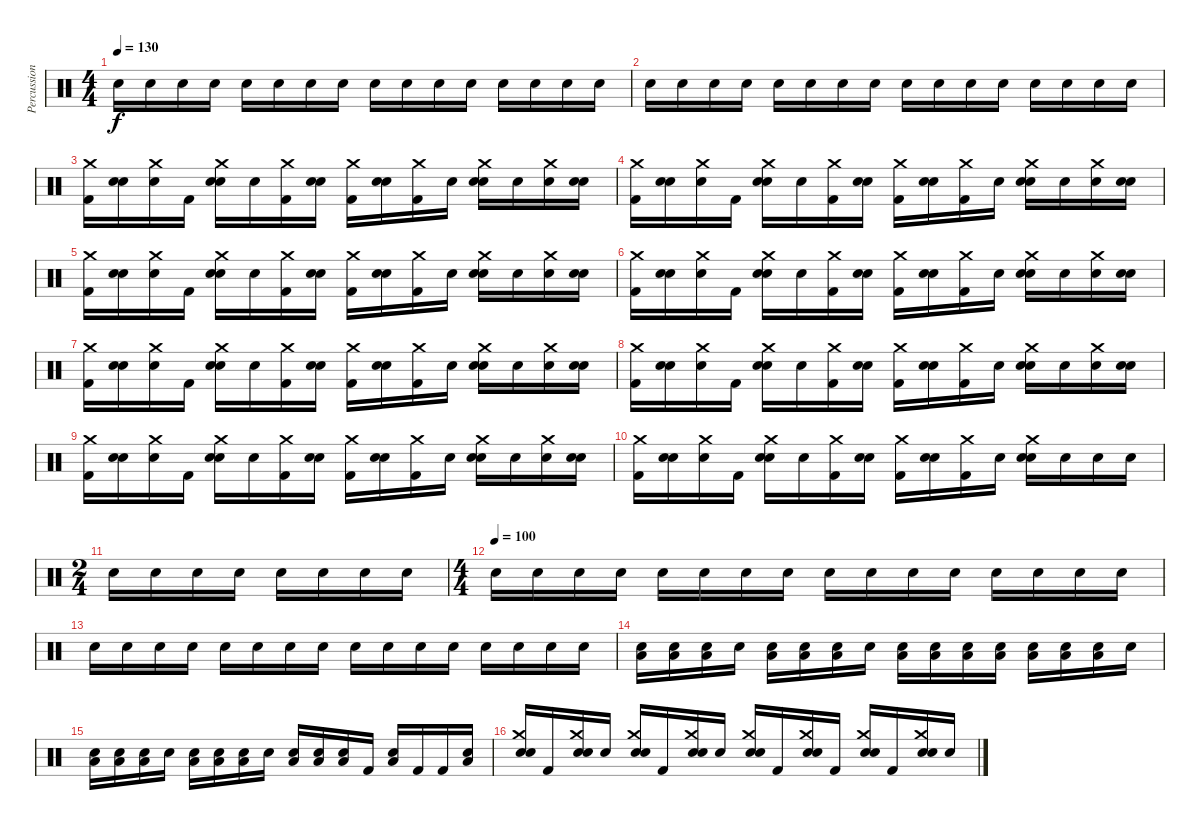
\track ("Percussion" "Percussion") {instrument percussion}
\staff {score}
\articulation defaults
\ts (4 4)
\tempo 130
\clef neutral
\ks c "Snare (hit)".16{dy f} "Snare (hit)".16 "Snare (hit)".16 "Snare (hit)".16 "Snare (hit)".16 "Snare (hit)".16 "Snare (hit)".16 "Snare (hit)".16 "Snare (hit)".16 "Snare (hit)".16 "Snare (hit)".16 "Snare (hit)".16 "Snare (hit)".16 "Snare (hit)".16 "Snare (hit)".16 "Snare (hit)".16
|
"Snare (hit)".16 "Snare (hit)".16 "Snare (hit)".16 "Snare (hit)".16 "Snare (hit)".16 "Snare (hit)".16 "Snare (hit)".16 "Snare (hit)".16 "Snare (hit)".16 "Snare (hit)".16 "Snare (hit)".16 "Snare (hit)".16 "Snare (hit)".16 "Snare (hit)".16 "Snare (hit)".16 "Snare (hit)".16 |
("Crash medium (hit)" "Kick (hit) 2").16 ("Electric Snare (hit)" "Snare (hit)").16 ("Crash medium (hit)" "Snare (hit)").16 "Kick (hit) 2".16 ("Electric Snare (hit)" "Crash medium (hit)" "Snare (hit)").16 "Snare (hit)".16 ("Crash medium (hit)" "Kick (hit) 2").16 ("Electric Snare (hit)" "Snare (hit)").16 ("Crash medium (hit)" "Kick (hit) 2").16 ("Electric Snare (hit)" "Snare (hit)").16 ("Crash medium (hit)" "Kick (hit) 2").16 "Snare (hit)".16 ("Electric Snare (hit)" "Crash medium (hit)" "Snare (hit)").16 "Snare (hit)".16 ("Crash medium (hit)" "Snare (hit)").16 ("Electric Snare (hit)" "Snare (hit)").16 |
("Crash medium (hit)" "Kick (hit) 2").16 ("Electric Snare (hit)" "Snare (hit)").16 ("Crash medium (hit)" "Snare (hit)").16 "Kick (hit) 2".16 ("Electric Snare (hit)" "Crash medium (hit)" "Snare (hit)").16 "Snare (hit)".16 ("Crash medium (hit)" "Kick (hit) 2").16 ("Electric Snare (hit)" "Snare (hit)").16 ("Crash medium (hit)" "Kick (hit) 2").16 ("Electric Snare (hit)" "Snare (hit)").16 ("Crash medium (hit)" "Kick (hit) 2").16 "Snare (hit)".16 ("Electric Snare (hit)" "Crash medium (hit)" "Snare (hit)").16 "Snare (hit)".16 ("Crash medium (hit)" "Snare (hit)").16 ("Electric Snare (hit)" "Snare (hit)").16 |
("Crash medium (hit)" "Kick (hit) 2").16 ("Electric Snare (hit)" "Snare (hit)").16 ("Crash medium (hit)" "Snare (hit)").16 "Kick (hit) 2".16 ("Electric Snare (hit)" "Crash medium (hit)" "Snare (hit)").16 "Snare (hit)".16 ("Crash medium (hit)" "Kick (hit) 2").16 ("Electric Snare (hit)" "Snare (hit)").16 ("Crash medium (hit)" "Kick (hit) 2").16 ("Electric Snare (hit)" "Snare (hit)").16 ("Crash medium (hit)" "Kick (hit) 2").16 "Snare (hit)".16 ("Electric Snare (hit)" "Crash medium (hit)" "Snare (hit)").16 "Snare (hit)".16 ("Crash medium (hit)" "Snare (hit)").16 ("Electric Snare (hit)" "Snare (hit)").16 |
("Crash medium (hit)" "Kick (hit) 2").16 ("Electric Snare (hit)" "Snare (hit)").16 ("Crash medium (hit)" "Snare (hit)").16 "Kick (hit) 2".16 ("Electric Snare (hit)" "Crash medium (hit)" "Snare (hit)").16 "Snare (hit)".16 ("Crash medium (hit)" "Kick (hit) 2").16 ("Electric Snare (hit)" "Snare (hit)").16 ("Crash medium (hit)" "Kick (hit) 2").16 ("Electric Snare (hit)" "Snare (hit)").16 ("Crash medium (hit)" "Kick (hit) 2").16 "Snare (hit)".16 ("Electric Snare (hit)" "Crash medium (hit)" "Snare (hit)").16 "Snare (hit)".16 ("Crash medium (hit)" "Snare (hit)").16 ("Electric Snare (hit)" "Snare (hit)").16 |
("Crash medium (hit)" "Kick (hit) 2").16 ("Electric Snare (hit)" "Snare (hit)").16 ("Crash medium (hit)" "Snare (hit)").16 "Kick (hit) 2".16 ("Electric Snare (hit)" "Crash medium (hit)" "Snare (hit)").16 "Snare (hit)".16 ("Crash medium (hit)" "Kick (hit) 2").16 ("Electric Snare (hit)" "Snare (hit)").16 ("Crash medium (hit)" "Kick (hit) 2").16 ("Electric Snare (hit)" "Snare (hit)").16 ("Crash medium (hit)" "Kick (hit) 2").16 "Snare (hit)".16 ("Electric Snare (hit)" "Crash medium (hit)" "Snare (hit)").16 "Snare (hit)".16 ("Crash medium (hit)" "Snare (hit)").16 ("Electric Snare (hit)" "Snare (hit)").16 |
("Crash medium (hit)" "Kick (hit) 2").16 ("Electric Snare (hit)" "Snare (hit)").16 ("Crash medium (hit)" "Snare (hit)").16 "Kick (hit) 2".16 ("Electric Snare (hit)" "Crash medium (hit)" "Snare (hit)").16 "Snare (hit)".16 ("Crash medium (hit)" "Kick (hit) 2").16 ("Electric Snare (hit)" "Snare (hit)").16 ("Crash medium (hit)" "Kick (hit) 2").16 ("Electric Snare (hit)" "Snare (hit)").16 ("Crash medium (hit)" "Kick (hit) 2").16 "Snare (hit)".16 ("Electric Snare (hit)" "Crash medium (hit)" "Snare (hit)").16 "Snare (hit)".16 ("Crash medium (hit)" "Snare (hit)").16 ("Electric Snare (hit)" "Snare (hit)").16 |
("Crash medium (hit)" "Kick (hit) 2").16 ("Electric Snare (hit)" "Snare (hit)").16 ("Crash medium (hit)" "Snare (hit)").16 "Kick (hit) 2".16 ("Electric Snare (hit)" "Crash medium (hit)" "Snare (hit)").16 "Snare (hit)".16 ("Crash medium (hit)" "Kick (hit) 2").16 ("Electric Snare (hit)" "Snare (hit)").16 ("Crash medium (hit)" "Kick (hit) 2").16 ("Electric Snare (hit)" "Snare (hit)").16 ("Crash medium (hit)" "Kick (hit) 2").16 "Snare (hit)".16 ("Electric Snare (hit)" "Crash medium (hit)" "Snare (hit)").16 "Snare (hit)".16 ("Crash medium (hit)" "Snare (hit)").16 ("Electric Snare (hit)" "Snare (hit)").16 |
("Crash medium (hit)" "Kick (hit) 2").16 ("Electric Snare (hit)" "Snare (hit)").16 ("Crash medium (hit)" "Snare (hit)").16 "Kick (hit) 2".16 ("Electric Snare (hit)" "Crash medium (hit)" "Snare (hit)").16 "Snare (hit)".16 ("Crash medium (hit)" "Kick (hit) 2").16 ("Electric Snare (hit)" "Snare (hit)").16 ("Crash medium (hit)" "Kick (hit) 2").16 ("Electric Snare (hit)" "Snare (hit)").16 ("Crash medium (hit)" "Kick (hit) 2").16 "Snare (hit)".16 ("Electric Snare (hit)" "Crash medium (hit)" "Snare (hit)").16 "Snare (hit)".16 "Snare (hit)".16 "Snare (hit)".16 |
\ts (2 4)
"Snare (hit)".16 "Snare (hit)".16 "Snare (hit)".16 "Snare (hit)".16 "Snare (hit)".16 "Snare (hit)".16 "Snare (hit)".16 "Snare (hit)".16 |
\ts (4 4)
\tempo (100)
"Snare (hit)".16 "Snare (hit)".16 "Snare (hit)".16 "Snare (hit)".16 "Snare (hit)".16 "Snare (hit)".16 "Snare (hit)".16 "Snare (hit)".16 "Snare (hit)".16 "Snare (hit)".16 "Snare (hit)".16 "Snare (hit)".16 "Snare (hit)".16 "Snare (hit)".16 "Snare (hit)".16 "Snare (hit)".16 |
"Snare (hit)".16 "Snare (hit)".16 "Snare (hit)".16 "Snare (hit)".16 "Snare (hit)".16 "Snare (hit)".16 "Snare (hit)".16 "Snare (hit)".16 "Snare (hit)".16 "Snare (hit)".16 "Snare (hit)".16 "Snare (hit)".16 "Snare (hit)".16 "Snare (hit)".16 "Snare (hit)".16 "Snare (hit)".16 |
("Electric Snare (hit)" "Low Floor Tom (hit)").16 ("Electric Snare (hit)" "Low Floor Tom (hit)").16 ("Electric Snare (hit)" "Low Floor Tom (hit)").16 "Snare (hit)".16 ("Electric Snare (hit)" "Low Floor Tom (hit)").16 ("Electric Snare (hit)" "Low Floor Tom (hit)").16 ("Electric Snare (hit)" "Low Floor Tom (hit)").16 "Snare (hit)".16 ("Electric Snare (hit)" "Low Floor Tom (hit)").16 ("Electric Snare (hit)" "Low Floor Tom (hit)").16 ("Electric Snare (hit)" "Low Floor Tom (hit)").16 ("Electric Snare (hit)" "Low Floor Tom (hit)").16 ("Electric Snare (hit)" "Low Floor Tom (hit)").16 ("Electric Snare (hit)" "Low Floor Tom (hit)").16 ("Electric Snare (hit)" "Low Floor Tom (hit)").16 "Snare (hit)".16 |
("Electric Snare (hit)" "Low Floor Tom (hit)").16 ("Electric Snare (hit)" "Low Floor Tom (hit)").16 ("Electric Snare (hit)" "Low Floor Tom (hit)").16 "Snare (hit)".16 ("Electric Snare (hit)" "Low Floor Tom (hit)").16 ("Electric Snare (hit)" "Low Floor Tom (hit)").16 ("Electric Snare (hit)" "Low Floor Tom (hit)").16 "Snare (hit)".16 ("Electric Snare (hit)" "Low Floor Tom (hit)").16 ("Electric Snare (hit)" "Low Floor Tom (hit)").16 ("Electric Snare (hit)" "Low Floor Tom (hit)").16 "Kick (hit) 2".16 ("Electric Snare (hit)" "Low Floor Tom (hit)").16 "Kick (hit) 2".16 "Kick (hit) 2".16 ("Electric Snare (hit)" "Low Floor Tom (hit)").16 |
("Crash medium (hit)" "Electric Snare (hit)" "Snare (hit)").16 "Kick (hit) 2".16 ("Crash medium (hit)" "Electric Snare (hit)" "Snare (hit)").16 "Snare (hit)".16 ("Crash medium (hit)" "Electric Snare (hit)" "Snare (hit)").16 "Kick (hit) 2".16 ("Crash medium (hit)" "Electric Snare (hit)" "Snare (hit)").16 "Snare (hit)".16 ("Crash medium (hit)" "Electric Snare (hit)" "Snare (hit)").16 "Kick (hit) 2".16 ("Crash medium (hit)" "Electric Snare (hit)" "Snare (hit)").16 "Kick (hit) 2".16 ("Crash medium (hit)" "Electric Snare (hit)" "Snare (hit)").16 "Kick (hit) 2".16 ("Crash medium (hit)" "Electric Snare (hit)" "Snare (hit)").16 "Snare (hit)".16
